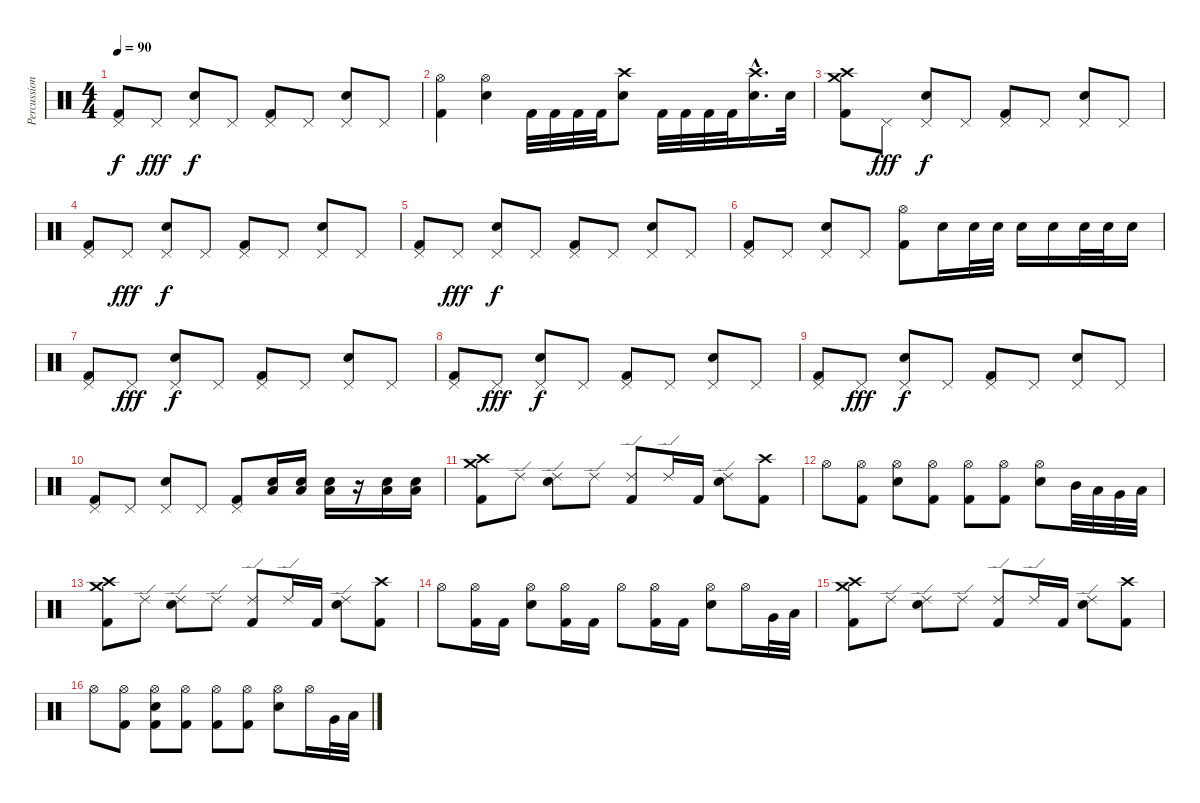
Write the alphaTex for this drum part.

\track ("Percussions" "Percussion") {instrument percussion}
\staff {score}
\articulation defaults
\ts (4 4)
\tempo 90
\clef neutral
\ks c
("Pedal Hi-Hat (hit)" "Kick (hit) 2").8{dy f} "Pedal Hi-Hat (hit)".8{dy fff} ("Pedal Hi-Hat (hit)" "Snare (hit) 2").8{dy f} "Pedal Hi-Hat (hit)".8 ("Pedal Hi-Hat (hit)" "Kick (hit) 2").8 "Pedal Hi-Hat (hit)".8 ("Pedal Hi-Hat (hit)" "Snare (hit) 2").8 "Pedal Hi-Hat (hit)".8 |
("Hi-Hat (open)" "Kick (hit) 2").4 ("Hi-Hat (open)" "Snare (hit) 2").4 "Kick (hit) 2".32 "Kick (hit) 2".32 "Kick (hit) 2".32 "Kick (hit) 2".32 ("Crash high (hit)" "Snare (hit) 2").8 "Kick (hit) 2".32 "Kick (hit) 2".32 "Kick (hit) 2".32 "Kick (hit) 2".32 ("Crash high (hit)"{hac} "Snare (hit) 2"{hac}).16{d} "Snare (hit) 2".32 |
("Crash medium (hit)" "Crash high (hit)" "Kick (hit) 2").8 "Pedal Hi-Hat (hit)".8{dy fff} ("Pedal Hi-Hat (hit)" "Snare (hit) 2").8{dy f} "Pedal Hi-Hat (hit)".8 ("Pedal Hi-Hat (hit)" "Kick (hit) 2").8 "Pedal Hi-Hat (hit)".8 ("Pedal Hi-Hat (hit)" "Snare (hit) 2").8 "Pedal Hi-Hat (hit)".8 |
("Pedal Hi-Hat (hit)" "Kick (hit) 2").8 "Pedal Hi-Hat (hit)".8{dy fff} ("Pedal Hi-Hat (hit)" "Snare (hit) 2").8{dy f} "Pedal Hi-Hat (hit)".8 ("Pedal Hi-Hat (hit)" "Kick (hit) 2").8 "Pedal Hi-Hat (hit)".8 ("Pedal Hi-Hat (hit)" "Snare (hit) 2").8 "Pedal Hi-Hat (hit)".8 |
("Pedal Hi-Hat (hit)" "Kick (hit) 2").8 "Pedal Hi-Hat (hit)".8{dy fff} ("Pedal Hi-Hat (hit)" "Snare (hit) 2").8{dy f} "Pedal Hi-Hat (hit)".8 ("Pedal Hi-Hat (hit)" "Kick (hit) 2").8 "Pedal Hi-Hat (hit)".8 ("Pedal Hi-Hat (hit)" "Snare (hit) 2").8 "Pedal Hi-Hat (hit)".8 |
("Pedal Hi-Hat (hit)" "Kick (hit) 2").8 "Pedal Hi-Hat (hit)".8 ("Pedal Hi-Hat (hit)" "Snare (hit) 2").8 "Pedal Hi-Hat (hit)".8 ("Hi-Hat (open)" "Kick (hit) 2").8 "Snare (hit) 2".16 "Snare (hit) 2".32 "Snare (hit) 2".32 "Snare (hit) 2".16 "Snare (hit) 2".16 "Snare (hit) 2".32 "Snare (hit) 2".32 "Snare (hit) 2".16 |
("Pedal Hi-Hat (hit)" "Kick (hit) 2").8 "Pedal Hi-Hat (hit)".8{dy fff} ("Pedal Hi-Hat (hit)" "Snare (hit) 2").8{dy f} "Pedal Hi-Hat (hit)".8 ("Pedal Hi-Hat (hit)" "Kick (hit) 2").8 "Pedal Hi-Hat (hit)".8 ("Pedal Hi-Hat (hit)" "Snare (hit) 2").8 "Pedal Hi-Hat (hit)".8 |
("Pedal Hi-Hat (hit)" "Kick (hit) 2").8 "Pedal Hi-Hat (hit)".8{dy fff} ("Pedal Hi-Hat (hit)" "Snare (hit) 2").8{dy f} "Pedal Hi-Hat (hit)".8 ("Pedal Hi-Hat (hit)" "Kick (hit) 2").8 "Pedal Hi-Hat (hit)".8 ("Pedal Hi-Hat (hit)" "Snare (hit) 2").8 "Pedal Hi-Hat (hit)".8 |
("Pedal Hi-Hat (hit)" "Kick (hit) 2").8 "Pedal Hi-Hat (hit)".8{dy fff} ("Pedal Hi-Hat (hit)" "Snare (hit) 2").8{dy f} "Pedal Hi-Hat (hit)".8 ("Pedal Hi-Hat (hit)" "Kick (hit) 2").8 "Pedal Hi-Hat (hit)".8 ("Pedal Hi-Hat (hit)" "Snare (hit) 2").8 "Pedal Hi-Hat (hit)".8 |
("Pedal Hi-Hat (hit)" "Kick (hit) 2").8 "Pedal Hi-Hat (hit)".8 ("Pedal Hi-Hat (hit)" "Snare (hit) 2").8 "Pedal Hi-Hat (hit)".8 ("Pedal Hi-Hat (hit)" "Kick (hit) 2").8 ("Low Floor Tom (hit)" "Snare (hit) 2").16 ("Low Floor Tom (hit)" "Snare (hit) 2").16 ("Low Floor Tom (hit)" "Snare (hit) 2").16 r.16 ("Low Floor Tom (hit)" "Snare (hit) 2").16 ("Low Floor Tom (hit)" "Snare (hit) 2").16 |
("Crash high (hit)" "Crash medium (hit)" "Kick (hit) 2").8 "Ride (edge) 2".8 ("Ride (edge) 2" "Snare (hit) 2").8 "Ride (edge) 2".8 ("Ride (edge) 2" "Kick (hit) 2").8 "Ride (edge) 2".16 "Kick (hit) 2".16 ("Ride (edge) 2" "Snare (hit) 2").8 ("Crash high (hit)" "Kick (hit) 2").8 |
"Hi-Hat (open)".8 ("Hi-Hat (open)" "Kick (hit) 2").8 ("Hi-Hat (open)" "Snare (hit) 2").8 ("Hi-Hat (open)" "Kick (hit) 2").8 ("Hi-Hat (open)" "Kick (hit) 2").8 ("Hi-Hat (open)" "Kick (hit) 2").8 ("Hi-Hat (open)" "Snare (hit) 2").8 "Mid Tom (hit)".32 "Low Tom (hit)".32 "Very Low Tom (hit)".32 "Low Floor Tom (hit)".32 |
("Crash high (hit)" "Crash medium (hit)" "Kick (hit) 2").8 "Ride (edge) 2".8 ("Ride (edge) 2" "Snare (hit) 2").8 "Ride (edge) 2".8 ("Ride (edge) 2" "Kick (hit) 2").8 "Ride (edge) 2".16 "Kick (hit) 2".16 ("Ride (edge) 2" "Snare (hit) 2").8 ("Crash high (hit)" "Kick (hit) 2").8 |
"Hi-Hat (open)".8 ("Hi-Hat (open)" "Kick (hit) 2").16 "Kick (hit) 2".16 ("Hi-Hat (open)" "Snare (hit) 2").8 ("Hi-Hat (open)" "Kick (hit) 2").16 "Kick (hit) 2".16 "Hi-Hat (open)".8 ("Hi-Hat (open)" "Kick (hit) 2").16 "Kick (hit) 2".16 ("Hi-Hat (open)" "Snare (hit) 2").8 "Hi-Hat (open)".16 "Very Low Tom (hit)".32 "Low Floor Tom (hit)".32 |
("Crash high (hit)" "Crash medium (hit)" "Kick (hit) 2").8 "Ride (edge) 2".8 ("Ride (edge) 2" "Snare (hit) 2").8 "Ride (edge) 2".8 ("Ride (edge) 2" "Kick (hit) 2").8 "Ride (edge) 2".16 "Kick (hit) 2".16 ("Ride (edge) 2" "Snare (hit) 2").8 ("Crash high (hit)" "Kick (hit) 2").8 |
"Hi-Hat (open)".8 ("Hi-Hat (open)" "Kick (hit) 2").8 ("Hi-Hat (open)" "Snare (hit) 2" "Kick (hit) 2").8 ("Hi-Hat (open)" "Kick (hit) 2").8 ("Hi-Hat (open)" "Kick (hit) 2").8 ("Hi-Hat (open)" "Kick (hit) 2").8 ("Hi-Hat (open)" "Snare (hit) 2").8 "Hi-Hat (open)".16 "Very Low Tom (hit)".32 "Low Floor Tom (hit)".32
